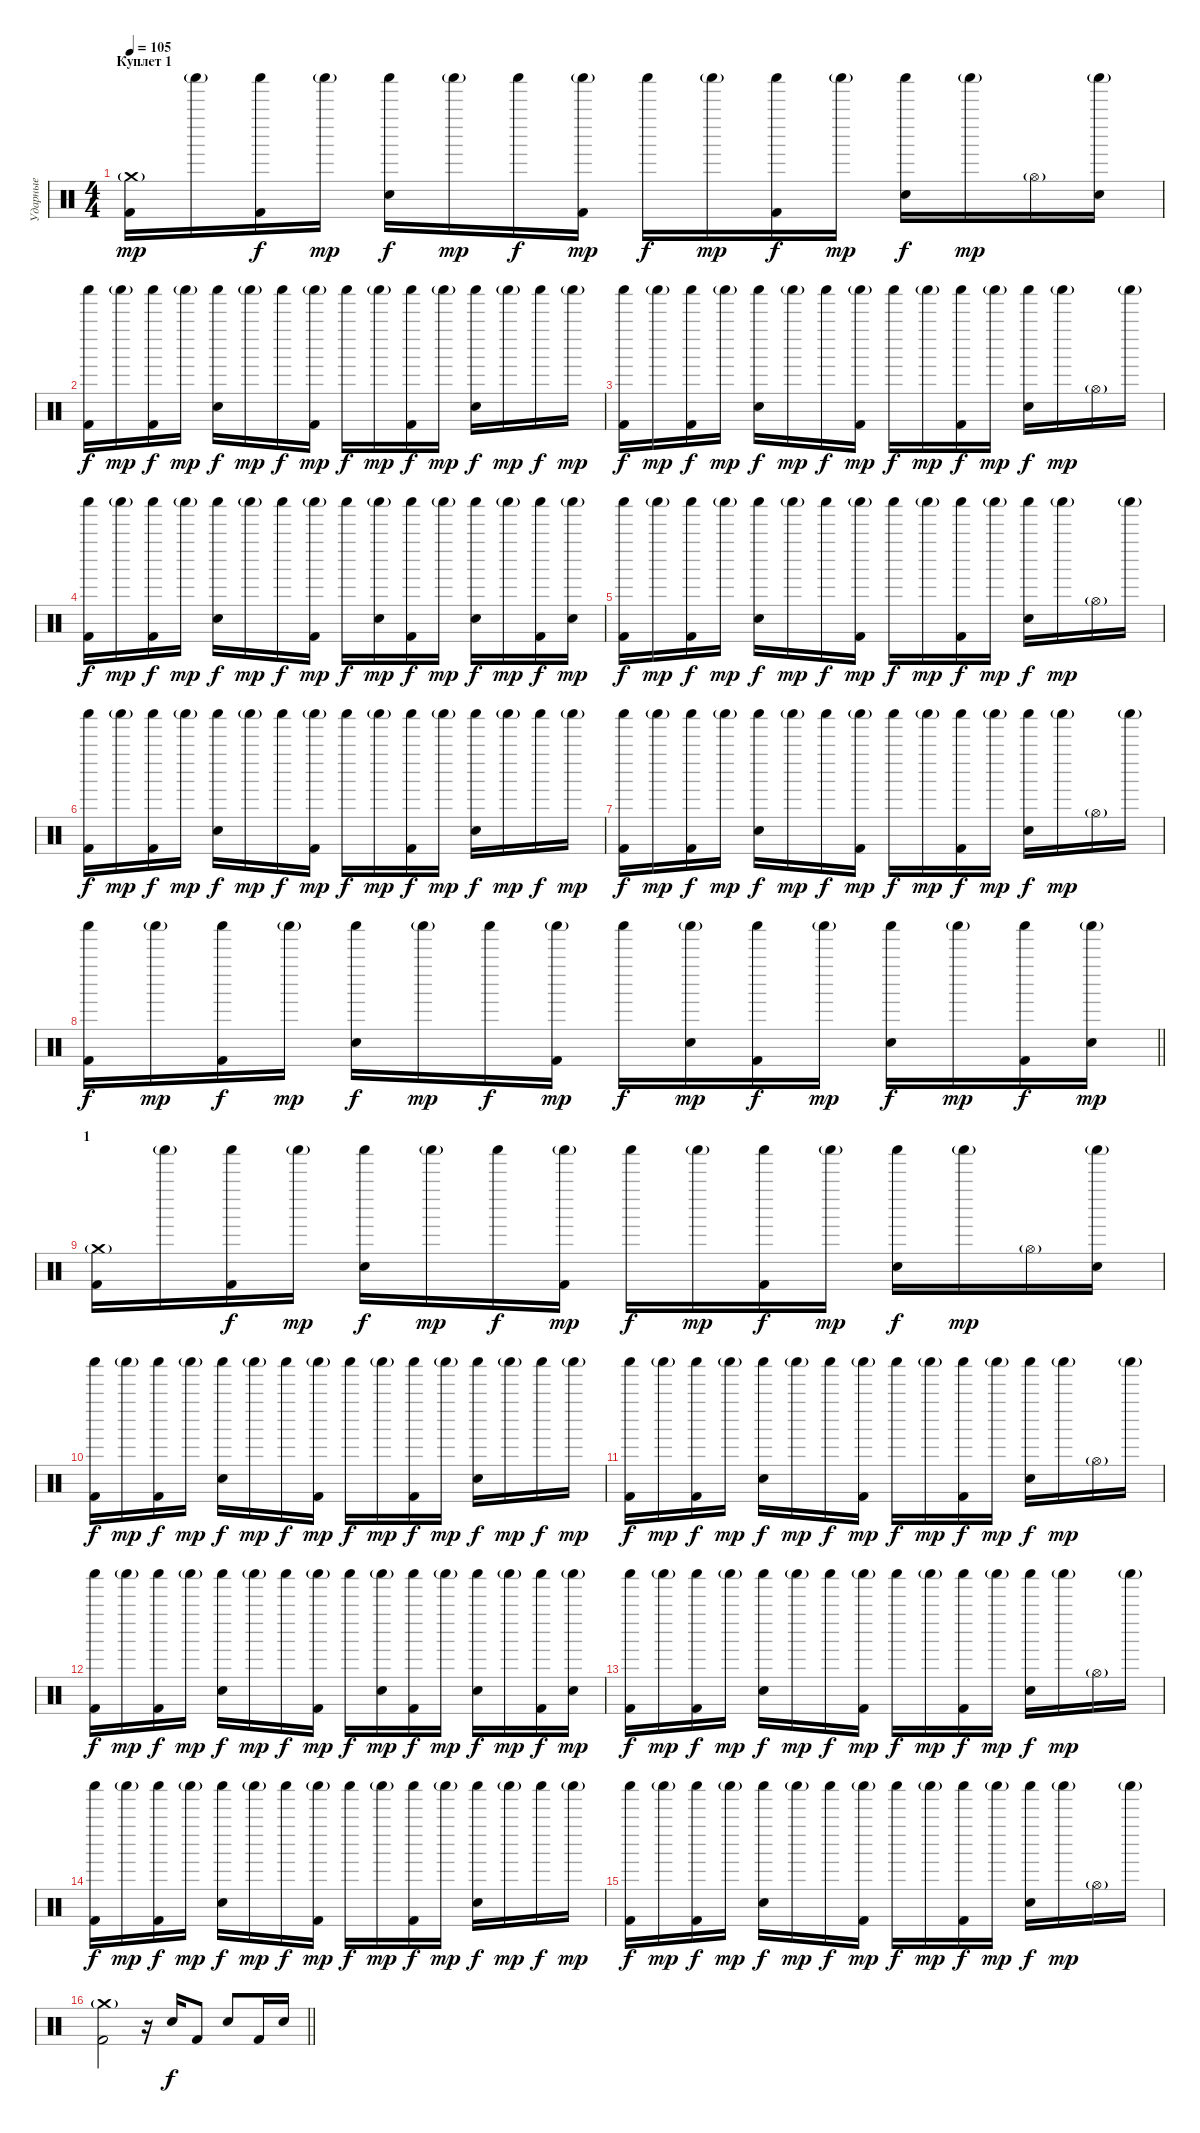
\track ("Ударные" "Ударные") {instrument percussion}
\staff {score}
\articulation defaults
\ts (4 4)
\section ("" "Куплет 1")
\tempo 105
\clef neutral
\ks c
("Crash medium (hit)"{g} "Kick (hit) 2").16{dy mp} "Shaker (hit)"{g}.16 ("Shaker (hit)" "Kick (hit) 2").16{dy f} "Shaker (hit)"{g}.16{dy mp} ("Shaker (hit)" "Electric Snare (hit)").16{dy f} "Shaker (hit)"{g}.16{dy mp} "Shaker (hit)".16{dy f} ("Shaker (hit)"{g} "Kick (hit) 2").16{dy mp} "Shaker (hit)".16{dy f} "Shaker (hit)"{g}.16{dy mp} ("Shaker (hit)" "Kick (hit) 2").16{dy f} "Shaker (hit)"{g}.16{dy mp} ("Shaker (hit)" "Electric Snare (hit)").16{dy f} "Shaker (hit)"{g}.16{dy mp} "Hi-Hat (open)"{g}.16 ("Shaker (hit)"{g} "Electric Snare (hit)").16 |
("Shaker (hit)" "Kick (hit) 2").16{dy f} "Shaker (hit)"{g}.16{dy mp} ("Shaker (hit)" "Kick (hit) 2").16{dy f} "Shaker (hit)"{g}.16{dy mp} ("Shaker (hit)" "Electric Snare (hit)").16{dy f} "Shaker (hit)"{g}.16{dy mp} "Shaker (hit)".16{dy f} ("Shaker (hit)"{g} "Kick (hit) 2").16{dy mp} "Shaker (hit)".16{dy f} "Shaker (hit)"{g}.16{dy mp} ("Shaker (hit)" "Kick (hit) 2").16{dy f} "Shaker (hit)"{g}.16{dy mp} ("Shaker (hit)" "Electric Snare (hit)").16{dy f} "Shaker (hit)"{g}.16{dy mp} "Shaker (hit)".16{dy f} "Shaker (hit)"{g}.16{dy mp} |
("Shaker (hit)" "Kick (hit) 2").16{dy f} "Shaker (hit)"{g}.16{dy mp} ("Shaker (hit)" "Kick (hit) 2").16{dy f} "Shaker (hit)"{g}.16{dy mp} ("Shaker (hit)" "Electric Snare (hit)").16{dy f} "Shaker (hit)"{g}.16{dy mp} "Shaker (hit)".16{dy f} ("Shaker (hit)"{g} "Kick (hit) 2").16{dy mp} "Shaker (hit)".16{dy f} "Shaker (hit)"{g}.16{dy mp} ("Shaker (hit)" "Kick (hit) 2").16{dy f} "Shaker (hit)"{g}.16{dy mp} ("Shaker (hit)" "Electric Snare (hit)").16{dy f} "Shaker (hit)"{g}.16{dy mp} "Hi-Hat (open)"{g}.16 "Shaker (hit)"{g}.16 |
("Shaker (hit)" "Kick (hit) 2").16{dy f} "Shaker (hit)"{g}.16{dy mp} ("Shaker (hit)" "Kick (hit) 2").16{dy f} "Shaker (hit)"{g}.16{dy mp} ("Shaker (hit)" "Electric Snare (hit)").16{dy f} "Shaker (hit)"{g}.16{dy mp} "Shaker (hit)".16{dy f} ("Shaker (hit)"{g} "Kick (hit) 2").16{dy mp} "Shaker (hit)".16{dy f} ("Shaker (hit)"{g} "Electric Snare (hit)").16{dy mp} ("Shaker (hit)" "Kick (hit) 2").16{dy f} "Shaker (hit)"{g}.16{dy mp} ("Shaker (hit)" "Electric Snare (hit)").16{dy f} "Shaker (hit)"{g}.16{dy mp} ("Shaker (hit)" "Kick (hit) 2").16{dy f} ("Shaker (hit)"{g} "Electric Snare (hit)").16{dy mp} |
("Shaker (hit)" "Kick (hit) 2").16{dy f} "Shaker (hit)"{g}.16{dy mp} ("Shaker (hit)" "Kick (hit) 2").16{dy f} "Shaker (hit)"{g}.16{dy mp} ("Shaker (hit)" "Electric Snare (hit)").16{dy f} "Shaker (hit)"{g}.16{dy mp} "Shaker (hit)".16{dy f} ("Shaker (hit)"{g} "Kick (hit) 2").16{dy mp} "Shaker (hit)".16{dy f} "Shaker (hit)"{g}.16{dy mp} ("Shaker (hit)" "Kick (hit) 2").16{dy f} "Shaker (hit)"{g}.16{dy mp} ("Shaker (hit)" "Electric Snare (hit)").16{dy f} "Shaker (hit)"{g}.16{dy mp} "Hi-Hat (open)"{g}.16 "Shaker (hit)"{g}.16 |
("Shaker (hit)" "Kick (hit) 2").16{dy f} "Shaker (hit)"{g}.16{dy mp} ("Shaker (hit)" "Kick (hit) 2").16{dy f} "Shaker (hit)"{g}.16{dy mp} ("Shaker (hit)" "Electric Snare (hit)").16{dy f} "Shaker (hit)"{g}.16{dy mp} "Shaker (hit)".16{dy f} ("Shaker (hit)"{g} "Kick (hit) 2").16{dy mp} "Shaker (hit)".16{dy f} "Shaker (hit)"{g}.16{dy mp} ("Shaker (hit)" "Kick (hit) 2").16{dy f} "Shaker (hit)"{g}.16{dy mp} ("Shaker (hit)" "Electric Snare (hit)").16{dy f} "Shaker (hit)"{g}.16{dy mp} "Shaker (hit)".16{dy f} "Shaker (hit)"{g}.16{dy mp} |
("Shaker (hit)" "Kick (hit) 2").16{dy f} "Shaker (hit)"{g}.16{dy mp} ("Shaker (hit)" "Kick (hit) 2").16{dy f} "Shaker (hit)"{g}.16{dy mp} ("Shaker (hit)" "Electric Snare (hit)").16{dy f} "Shaker (hit)"{g}.16{dy mp} "Shaker (hit)".16{dy f} ("Shaker (hit)"{g} "Kick (hit) 2").16{dy mp} "Shaker (hit)".16{dy f} "Shaker (hit)"{g}.16{dy mp} ("Shaker (hit)" "Kick (hit) 2").16{dy f} "Shaker (hit)"{g}.16{dy mp} ("Shaker (hit)" "Electric Snare (hit)").16{dy f} "Shaker (hit)"{g}.16{dy mp} "Hi-Hat (open)"{g}.16 "Shaker (hit)"{g}.16 |
\barLineRight lightlight
("Shaker (hit)" "Kick (hit) 2").16{dy f} "Shaker (hit)"{g}.16{dy mp} ("Shaker (hit)" "Kick (hit) 2").16{dy f} "Shaker (hit)"{g}.16{dy mp} ("Shaker (hit)" "Electric Snare (hit)").16{dy f} "Shaker (hit)"{g}.16{dy mp} "Shaker (hit)".16{dy f} ("Shaker (hit)"{g} "Kick (hit) 2").16{dy mp} "Shaker (hit)".16{dy f} ("Shaker (hit)"{g} "Electric Snare (hit)").16{dy mp} ("Shaker (hit)" "Kick (hit) 2").16{dy f} "Shaker (hit)"{g}.16{dy mp} ("Shaker (hit)" "Electric Snare (hit)").16{dy f} "Shaker (hit)"{g}.16{dy mp} ("Shaker (hit)" "Kick (hit) 2").16{dy f} ("Shaker (hit)"{g} "Electric Snare (hit)").16{dy mp} |
\section ("" "1")
("Crash medium (hit)"{g} "Kick (hit) 2").16 "Shaker (hit)"{g}.16 ("Shaker (hit)" "Kick (hit) 2").16{dy f} "Shaker (hit)"{g}.16{dy mp} ("Shaker (hit)" "Electric Snare (hit)").16{dy f} "Shaker (hit)"{g}.16{dy mp} "Shaker (hit)".16{dy f} ("Shaker (hit)"{g} "Kick (hit) 2").16{dy mp} "Shaker (hit)".16{dy f} "Shaker (hit)"{g}.16{dy mp} ("Shaker (hit)" "Kick (hit) 2").16{dy f} "Shaker (hit)"{g}.16{dy mp} ("Shaker (hit)" "Electric Snare (hit)").16{dy f} "Shaker (hit)"{g}.16{dy mp} "Hi-Hat (open)"{g}.16 ("Shaker (hit)"{g} "Electric Snare (hit)").16 |
("Shaker (hit)" "Kick (hit) 2").16{dy f} "Shaker (hit)"{g}.16{dy mp} ("Shaker (hit)" "Kick (hit) 2").16{dy f} "Shaker (hit)"{g}.16{dy mp} ("Shaker (hit)" "Electric Snare (hit)").16{dy f} "Shaker (hit)"{g}.16{dy mp} "Shaker (hit)".16{dy f} ("Shaker (hit)"{g} "Kick (hit) 2").16{dy mp} "Shaker (hit)".16{dy f} "Shaker (hit)"{g}.16{dy mp} ("Shaker (hit)" "Kick (hit) 2").16{dy f} "Shaker (hit)"{g}.16{dy mp} ("Shaker (hit)" "Electric Snare (hit)").16{dy f} "Shaker (hit)"{g}.16{dy mp} "Shaker (hit)".16{dy f} "Shaker (hit)"{g}.16{dy mp} |
("Shaker (hit)" "Kick (hit) 2").16{dy f} "Shaker (hit)"{g}.16{dy mp} ("Shaker (hit)" "Kick (hit) 2").16{dy f} "Shaker (hit)"{g}.16{dy mp} ("Shaker (hit)" "Electric Snare (hit)").16{dy f} "Shaker (hit)"{g}.16{dy mp} "Shaker (hit)".16{dy f} ("Shaker (hit)"{g} "Kick (hit) 2").16{dy mp} "Shaker (hit)".16{dy f} "Shaker (hit)"{g}.16{dy mp} ("Shaker (hit)" "Kick (hit) 2").16{dy f} "Shaker (hit)"{g}.16{dy mp} ("Shaker (hit)" "Electric Snare (hit)").16{dy f} "Shaker (hit)"{g}.16{dy mp} "Hi-Hat (open)"{g}.16 "Shaker (hit)"{g}.16 |
("Shaker (hit)" "Kick (hit) 2").16{dy f} "Shaker (hit)"{g}.16{dy mp} ("Shaker (hit)" "Kick (hit) 2").16{dy f} "Shaker (hit)"{g}.16{dy mp} ("Shaker (hit)" "Electric Snare (hit)").16{dy f} "Shaker (hit)"{g}.16{dy mp} "Shaker (hit)".16{dy f} ("Shaker (hit)"{g} "Kick (hit) 2").16{dy mp} "Shaker (hit)".16{dy f} ("Shaker (hit)"{g} "Electric Snare (hit)").16{dy mp} ("Shaker (hit)" "Kick (hit) 2").16{dy f} "Shaker (hit)"{g}.16{dy mp} ("Shaker (hit)" "Electric Snare (hit)").16{dy f} "Shaker (hit)"{g}.16{dy mp} ("Shaker (hit)" "Kick (hit) 2").16{dy f} ("Shaker (hit)"{g} "Electric Snare (hit)").16{dy mp} |
("Shaker (hit)" "Kick (hit) 2").16{dy f} "Shaker (hit)"{g}.16{dy mp} ("Shaker (hit)" "Kick (hit) 2").16{dy f} "Shaker (hit)"{g}.16{dy mp} ("Shaker (hit)" "Electric Snare (hit)").16{dy f} "Shaker (hit)"{g}.16{dy mp} "Shaker (hit)".16{dy f} ("Shaker (hit)"{g} "Kick (hit) 2").16{dy mp} "Shaker (hit)".16{dy f} "Shaker (hit)"{g}.16{dy mp} ("Shaker (hit)" "Kick (hit) 2").16{dy f} "Shaker (hit)"{g}.16{dy mp} ("Shaker (hit)" "Electric Snare (hit)").16{dy f} "Shaker (hit)"{g}.16{dy mp} "Hi-Hat (open)"{g}.16 "Shaker (hit)"{g}.16 |
("Shaker (hit)" "Kick (hit) 2").16{dy f} "Shaker (hit)"{g}.16{dy mp} ("Shaker (hit)" "Kick (hit) 2").16{dy f} "Shaker (hit)"{g}.16{dy mp} ("Shaker (hit)" "Electric Snare (hit)").16{dy f} "Shaker (hit)"{g}.16{dy mp} "Shaker (hit)".16{dy f} ("Shaker (hit)"{g} "Kick (hit) 2").16{dy mp} "Shaker (hit)".16{dy f} "Shaker (hit)"{g}.16{dy mp} ("Shaker (hit)" "Kick (hit) 2").16{dy f} "Shaker (hit)"{g}.16{dy mp} ("Shaker (hit)" "Electric Snare (hit)").16{dy f} "Shaker (hit)"{g}.16{dy mp} "Shaker (hit)".16{dy f} "Shaker (hit)"{g}.16{dy mp} |
("Shaker (hit)" "Kick (hit) 2").16{dy f} "Shaker (hit)"{g}.16{dy mp} ("Shaker (hit)" "Kick (hit) 2").16{dy f} "Shaker (hit)"{g}.16{dy mp} ("Shaker (hit)" "Electric Snare (hit)").16{dy f} "Shaker (hit)"{g}.16{dy mp} "Shaker (hit)".16{dy f} ("Shaker (hit)"{g} "Kick (hit) 2").16{dy mp} "Shaker (hit)".16{dy f} "Shaker (hit)"{g}.16{dy mp} ("Shaker (hit)" "Kick (hit) 2").16{dy f} "Shaker (hit)"{g}.16{dy mp} ("Shaker (hit)" "Electric Snare (hit)").16{dy f} "Shaker (hit)"{g}.16{dy mp} "Hi-Hat (open)"{g}.16 "Shaker (hit)"{g}.16 |
\barLineRight lightlight
("Crash medium (hit)"{g} "Kick (hit) 2").2 r.16 "Electric Snare (hit)".16{dy f} "Kick (hit) 2".8 "Electric Snare (hit)".8 "Kick (hit) 2".16 "Electric Snare (hit)".16
